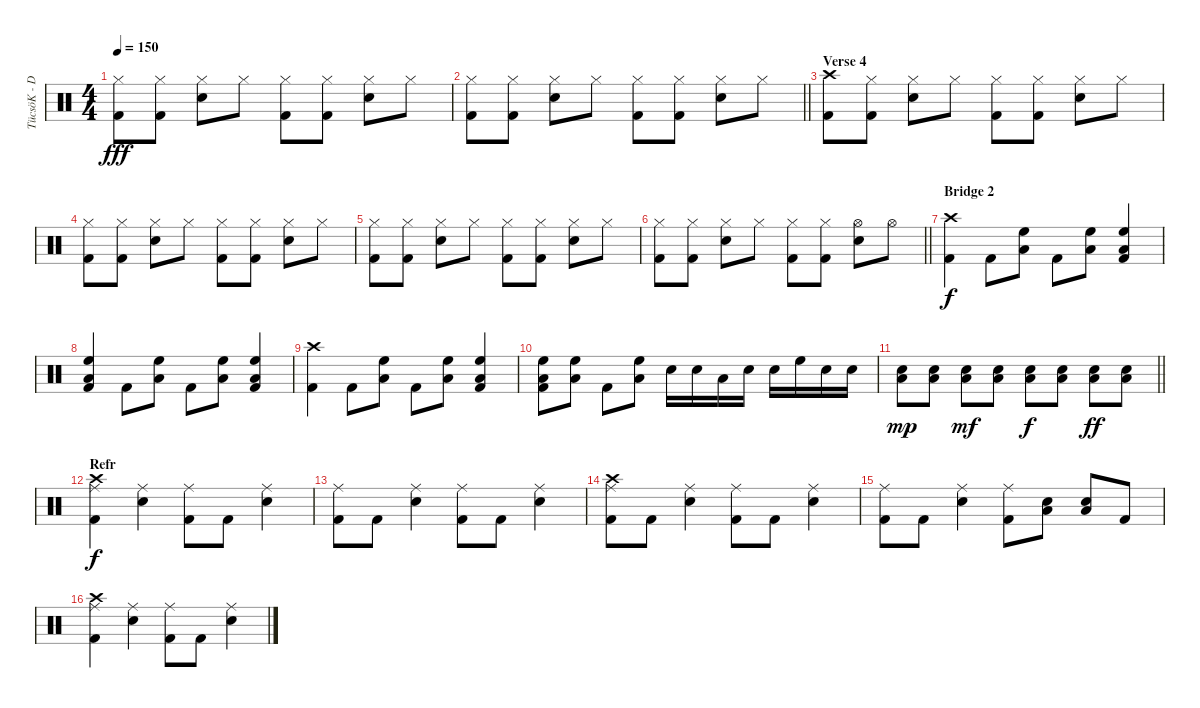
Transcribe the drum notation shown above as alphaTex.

\track ("TücsöK - Dob" "TücsöK - D") {instrument percussion}
\staff {score}
\articulation defaults
\ts (4 4)
\tempo 150
\clef neutral
\ks c
("Hi-Hat (closed)" "Kick (hit) 2").8{dy fff} ("Hi-Hat (closed)" "Kick (hit) 2").8 ("Hi-Hat (closed)" "Snare (hit) 2").8 "Hi-Hat (closed)".8 ("Hi-Hat (closed)" "Kick (hit) 2").8 ("Hi-Hat (closed)" "Kick (hit) 2").8 ("Hi-Hat (closed)" "Snare (hit) 2").8 "Hi-Hat (closed)".8 |
\barLineRight lightlight
("Hi-Hat (closed)" "Kick (hit) 2").8 ("Hi-Hat (closed)" "Kick (hit) 2").8 ("Hi-Hat (closed)" "Snare (hit) 2").8 "Hi-Hat (closed)".8 ("Hi-Hat (closed)" "Kick (hit) 2").8 ("Hi-Hat (closed)" "Kick (hit) 2").8 ("Hi-Hat (closed)" "Snare (hit) 2").8 "Hi-Hat (closed)".8 |
\section ("" "Verse 4")
("Crash high (hit)" "Kick (hit) 2").8 ("Hi-Hat (closed)" "Kick (hit) 2").8 ("Hi-Hat (closed)" "Snare (hit) 2").8 "Hi-Hat (closed)".8 ("Hi-Hat (closed)" "Kick (hit) 2").8 ("Hi-Hat (closed)" "Kick (hit) 2").8 ("Hi-Hat (closed)" "Snare (hit) 2").8 "Hi-Hat (closed)".8 |
("Hi-Hat (closed)" "Kick (hit) 2").8 ("Hi-Hat (closed)" "Kick (hit) 2").8 ("Hi-Hat (closed)" "Snare (hit) 2").8 "Hi-Hat (closed)".8 ("Hi-Hat (closed)" "Kick (hit) 2").8 ("Hi-Hat (closed)" "Kick (hit) 2").8 ("Hi-Hat (closed)" "Snare (hit) 2").8 "Hi-Hat (closed)".8 |
("Hi-Hat (closed)" "Kick (hit) 2").8 ("Hi-Hat (closed)" "Kick (hit) 2").8 ("Hi-Hat (closed)" "Snare (hit) 2").8 "Hi-Hat (closed)".8 ("Hi-Hat (closed)" "Kick (hit) 2").8 ("Hi-Hat (closed)" "Kick (hit) 2").8 ("Hi-Hat (closed)" "Snare (hit) 2").8 "Hi-Hat (closed)".8 |
\barLineRight lightlight
("Hi-Hat (closed)" "Kick (hit) 2").8 ("Hi-Hat (closed)" "Kick (hit) 2").8 ("Hi-Hat (closed)" "Snare (hit) 2").8 "Hi-Hat (closed)".8 ("Hi-Hat (closed)" "Kick (hit) 2").8 ("Hi-Hat (closed)" "Kick (hit) 2").8 ("Hi-Hat (open)" "Snare (hit) 2").8 "Hi-Hat (open)".8 |
\section ("" "Bridge 2")
("Crash high (hit)" "Kick (hit) 2").4{dy f} "Kick (hit) 2".8 ("High Floor Tom (hit)" "Low Tom (hit)").8 "Kick (hit) 2".8 ("High Floor Tom (hit)" "Low Tom (hit)").8 ("High Floor Tom (hit)" "Low Tom (hit)" "Kick (hit) 2").4 |
("High Floor Tom (hit)" "Low Tom (hit)" "Kick (hit) 2").4 "Kick (hit) 2".8 ("High Floor Tom (hit)" "Low Tom (hit)").8 "Kick (hit) 2".8 ("High Floor Tom (hit)" "Low Tom (hit)").8 ("High Floor Tom (hit)" "Low Tom (hit)" "Kick (hit) 2").4 |
("Crash high (hit)" "Kick (hit) 2").4 "Kick (hit) 2".8 ("High Floor Tom (hit)" "Low Tom (hit)").8 "Kick (hit) 2".8 ("High Floor Tom (hit)" "Low Tom (hit)").8 ("High Floor Tom (hit)" "Low Tom (hit)" "Kick (hit) 2").4 |
("High Floor Tom (hit)" "Low Tom (hit)" "Kick (hit) 2").8 ("High Floor Tom (hit)" "Low Tom (hit)").8 "Kick (hit) 2".8 ("High Floor Tom (hit)" "Low Tom (hit)").8 "Snare (hit) 2".16 "Snare (hit) 2".16 "Low Tom (hit)".16 "Snare (hit) 2".16 "Snare (hit) 2".16 "High Floor Tom (hit)".16 "Snare (hit) 2".16 "Snare (hit) 2".16 |
\barLineRight lightlight
("Snare (hit) 2" "Low Tom (hit)").8{dy mp} ("Snare (hit) 2" "Low Tom (hit)").8 ("Snare (hit) 2" "Low Tom (hit)").8{dy mf} ("Snare (hit) 2" "Low Tom (hit)").8 ("Snare (hit) 2" "Low Tom (hit)").8{dy f} ("Snare (hit) 2" "Low Tom (hit)").8 ("Snare (hit) 2" "Low Tom (hit)").8{dy ff} ("Snare (hit) 2" "Low Tom (hit)").8 |
\section ("" "Refr")
("Crash high (hit)" "Ride (middle)" "Kick (hit) 2").4{dy f} ("Ride (middle)" "Snare (hit) 2").4 ("Ride (middle)" "Kick (hit) 2").8 "Kick (hit) 2".8 ("Ride (middle)" "Snare (hit) 2").4 |
("Ride (middle)" "Kick (hit) 2").8 "Kick (hit) 2".8 ("Ride (middle)" "Snare (hit) 2").4 ("Ride (middle)" "Kick (hit) 2").8 "Kick (hit) 2".8 ("Ride (middle)" "Snare (hit) 2").4 |
("Crash high (hit)" "Ride (middle)" "Kick (hit) 2").8 "Kick (hit) 2".8 ("Ride (middle)" "Snare (hit) 2").4 ("Ride (middle)" "Kick (hit) 2").8 "Kick (hit) 2".8 ("Ride (middle)" "Snare (hit) 2").4 |
("Ride (middle)" "Kick (hit) 2").8 "Kick (hit) 2".8 ("Ride (middle)" "Snare (hit) 2").4 ("Ride (middle)" "Kick (hit) 2").8 ("Snare (hit) 2" "Low Tom (hit)").8 ("Snare (hit) 2" "Low Tom (hit)").8 "Kick (hit) 2".8 |
("Crash high (hit)" "Ride (middle)" "Kick (hit) 2").4 ("Ride (middle)" "Snare (hit) 2").4 ("Ride (middle)" "Kick (hit) 2").8 "Kick (hit) 2".8 ("Ride (middle)" "Snare (hit) 2").4
